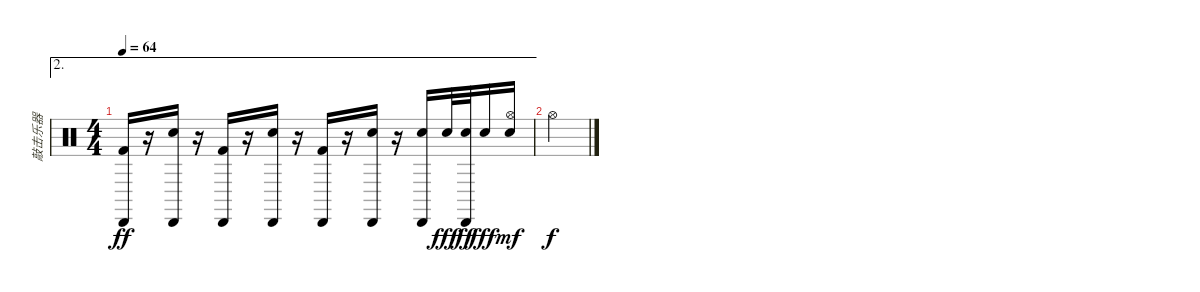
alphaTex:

\track ("敲击乐器" "敲击乐器") {instrument percussion}
\staff {score}
\articulation defaults
\ae 2
\ts (4 4)
\tempo 64
\clef neutral
\ks c
("Cabasa (hit)" "Kick (hit) 2").16{dy ff} r.16 ("Cabasa (hit)" "Snare (hit) 2").16 r.16 ("Cabasa (hit)" "Kick (hit) 2").16 r.16 ("Cabasa (hit)" "Snare (hit) 2").16 r.16 ("Cabasa (hit)" "Kick (hit) 2").16 r.16 ("Cabasa (hit)" "Snare (hit) 2").16 r.16 ("Cabasa (hit)" "Snare (hit) 2").16 "Snare (hit) 2".32{dy fff} ("Cabasa (hit)" "Snare (hit) 2").32{dy ff} "Electric Snare (hit)".16{dy fff} ("Snare (hit) 2" "Hi-Hat (open)").16{dy mf} |
"Hi-Hat (open)".4{dy f}
